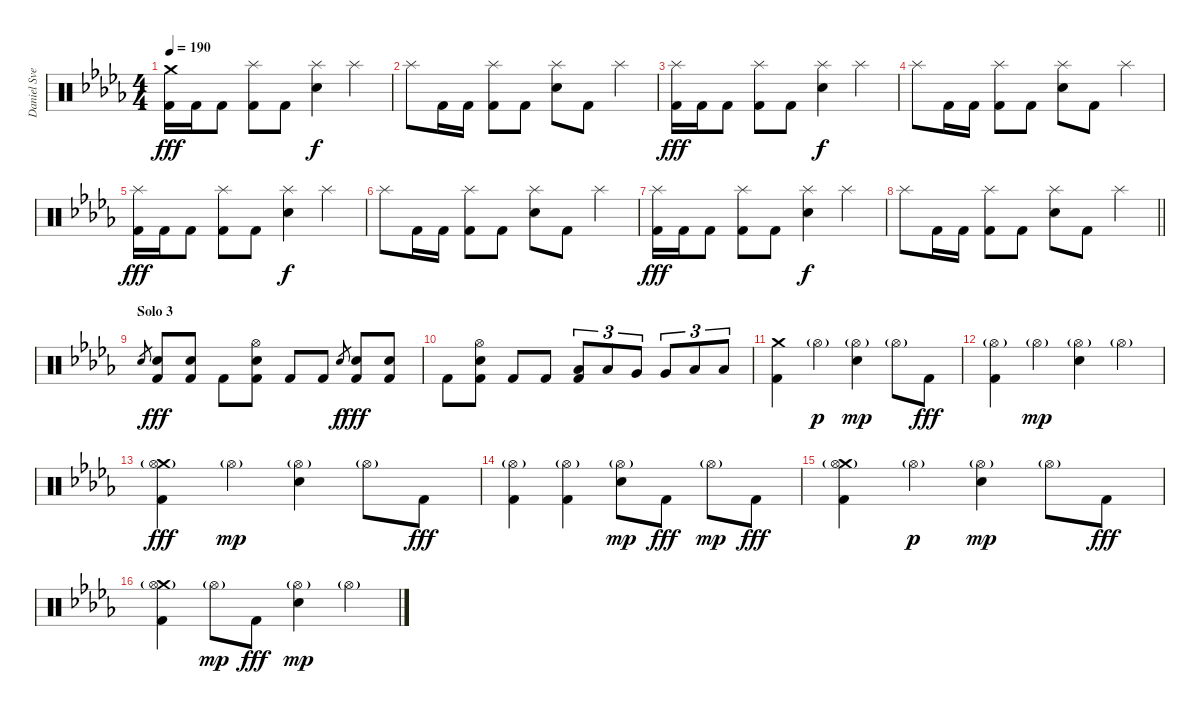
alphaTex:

\track ("Daniel Svensson" "Daniel Sve") {instrument percussion}
\staff {score}
\articulation defaults
\ts (4 4)
\tempo 190
\clef neutral
\ks db
("Crash medium (hit)" "Kick (hit) 2").16{dy fff} "Kick (hit) 2".16 "Kick (hit) 2".8 ("Splash (hit)" "Kick (hit) 2").8 "Kick (hit) 2".8 ("Splash (hit)" "Electric Snare (hit)").4{dy f} "Splash (hit)".4 |
"Splash (hit)".8 "Kick (hit) 2".16 "Kick (hit) 2".16 ("Splash (hit)" "Kick (hit) 2").8 "Kick (hit) 2".8 ("Splash (hit)" "Electric Snare (hit)").8 "Kick (hit) 2".8 "Splash (hit)".4 |
("Splash (hit)" "Kick (hit) 2").16{dy fff} "Kick (hit) 2".16 "Kick (hit) 2".8 ("Splash (hit)" "Kick (hit) 2").8 "Kick (hit) 2".8 ("Splash (hit)" "Electric Snare (hit)").4{dy f} "Splash (hit)".4 |
"Splash (hit)".8 "Kick (hit) 2".16 "Kick (hit) 2".16 ("Splash (hit)" "Kick (hit) 2").8 "Kick (hit) 2".8 ("Splash (hit)" "Electric Snare (hit)").8 "Kick (hit) 2".8 "Splash (hit)".4 |
("Splash (hit)" "Kick (hit) 2").16{dy fff} "Kick (hit) 2".16 "Kick (hit) 2".8 ("Splash (hit)" "Kick (hit) 2").8 "Kick (hit) 2".8 ("Splash (hit)" "Electric Snare (hit)").4{dy f} "Splash (hit)".4 |
"Splash (hit)".8 "Kick (hit) 2".16 "Kick (hit) 2".16 ("Splash (hit)" "Kick (hit) 2").8 "Kick (hit) 2".8 ("Splash (hit)" "Electric Snare (hit)").8 "Kick (hit) 2".8 "Splash (hit)".4 |
("Splash (hit)" "Kick (hit) 2").16{dy fff} "Kick (hit) 2".16 "Kick (hit) 2".8 ("Splash (hit)" "Kick (hit) 2").8 "Kick (hit) 2".8 ("Splash (hit)" "Electric Snare (hit)").4{dy f} "Splash (hit)".4 |
\barLineRight lightlight "Splash (hit)".8 "Kick (hit) 2".16 "Kick (hit) 2".16
("Splash (hit)" "Kick (hit) 2").8 "Kick (hit) 2".8 ("Splash (hit)" "Electric Snare (hit)").8 "Kick (hit) 2".8 "Splash (hit)".4 |
\section ("" "Solo 3")
"Electric Snare (hit)".8{gr} ("Electric Snare (hit)" "Kick (hit) 2").8{dy fff} ("Electric Snare (hit)" "Kick (hit) 2").8 "Kick (hit) 2".8 ("Hi-Hat (open)" "Electric Snare (hit)" "Kick (hit) 2").8 "Kick (hit) 2".8 "Kick (hit) 2".8 "Electric Snare (hit)".8{gr dy f} ("Electric Snare (hit)" "Kick (hit) 2").8{dy fff} ("Electric Snare (hit)" "Kick (hit) 2").8 |
"Kick (hit) 2".8 ("Hi-Hat (open)" "Electric Snare (hit)" "Kick (hit) 2").8 "Kick (hit) 2".8 "Kick (hit) 2".8 ("Low Tom (hit)" "Kick (hit) 2").8{tu (3 2)} "Low Tom (hit)".8{tu (3 2)} "Very Low Tom (hit)".8{tu (3 2)} "Very Low Tom (hit)".8{tu (3 2)} "Low Floor Tom (hit)".8{tu (3 2)} "Low Floor Tom (hit)".8{tu (3 2)} |
("Crash medium (hit)" "Kick (hit) 2").4 "Hi-Hat (open)"{g}.4{dy p} ("Hi-Hat (open)"{g} "Electric Snare (hit)").4{dy mp} "Hi-Hat (open)"{g}.8 "Kick (hit) 2".8{dy fff} |
("Hi-Hat (open)"{g} "Kick (hit) 2").4 "Hi-Hat (open)"{g}.4{dy mp} ("Hi-Hat (open)"{g} "Electric Snare (hit)").4 "Hi-Hat (open)"{g}.4 |
("Crash medium (hit)" "Hi-Hat (open)"{g} "Kick (hit) 2").4{dy fff} "Hi-Hat (open)"{g}.4{dy mp} ("Hi-Hat (open)"{g} "Electric Snare (hit)").4 "Hi-Hat (open)"{g}.8 "Kick (hit) 2".8{dy fff} |
("Hi-Hat (open)"{g} "Kick (hit) 2").4 ("Hi-Hat (open)"{g} "Kick (hit) 2").4 ("Hi-Hat (open)"{g} "Electric Snare (hit)").8{dy mp} "Kick (hit) 2".8{dy fff} "Hi-Hat (open)"{g}.8{dy mp} "Kick (hit) 2".8{dy fff} |
("Crash medium (hit)" "Hi-Hat (open)"{g} "Kick (hit) 2").4 "Hi-Hat (open)"{g}.4{dy p} ("Hi-Hat (open)"{g} "Electric Snare (hit)").4{dy mp} "Hi-Hat (open)"{g}.8 "Kick (hit) 2".8{dy fff} |
("Crash medium (hit)" "Hi-Hat (open)"{g} "Kick (hit) 2").4 "Hi-Hat (open)"{g}.8{dy mp} "Kick (hit) 2".8{dy fff} ("Hi-Hat (open)"{g} "Electric Snare (hit)").4{dy mp} "Hi-Hat (open)"{g}.4
